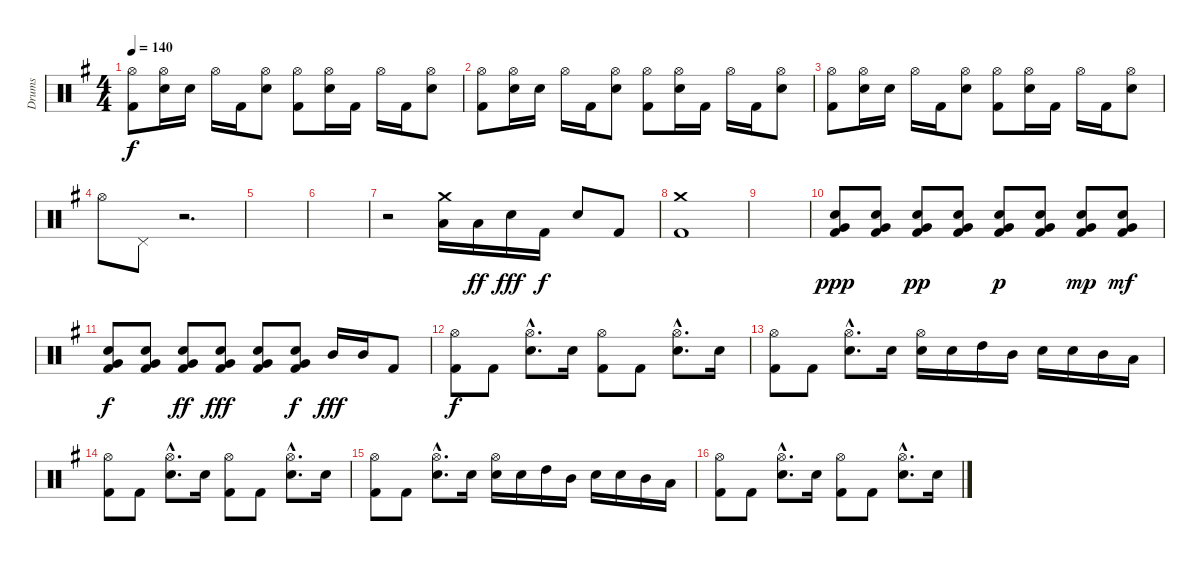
\track ("Drums" "Drums") {instrument percussion}
\staff {score}
\articulation defaults
\ts (4 4)
\tempo 140
\clef neutral
\ks g
("Hi-Hat (open)" "Kick (hit) 2").8{dy f} ("Hi-Hat (open)" "Electric Snare (hit)").16 "Electric Snare (hit)".16 "Hi-Hat (open)".16 "Kick (hit) 2".16 ("Hi-Hat (open)" "Electric Snare (hit)").8 ("Hi-Hat (open)" "Kick (hit) 2").8 ("Hi-Hat (open)" "Electric Snare (hit)").16 "Kick (hit) 2".16 "Hi-Hat (open)".16 "Kick (hit) 2".16 ("Hi-Hat (open)" "Electric Snare (hit)").8 |
("Hi-Hat (open)" "Kick (hit) 2").8 ("Hi-Hat (open)" "Electric Snare (hit)").16 "Electric Snare (hit)".16 "Hi-Hat (open)".16 "Kick (hit) 2".16 ("Hi-Hat (open)" "Electric Snare (hit)").8 ("Hi-Hat (open)" "Kick (hit) 2").8 ("Hi-Hat (open)" "Electric Snare (hit)").16 "Kick (hit) 2".16 "Hi-Hat (open)".16 "Kick (hit) 2".16 ("Hi-Hat (open)" "Electric Snare (hit)").8 |
("Hi-Hat (open)" "Kick (hit) 2").8 ("Hi-Hat (open)" "Electric Snare (hit)").16 "Electric Snare (hit)".16 "Hi-Hat (open)".16 "Kick (hit) 2".16 ("Hi-Hat (open)" "Electric Snare (hit)").8 ("Hi-Hat (open)" "Kick (hit) 2").8 ("Hi-Hat (open)" "Electric Snare (hit)").16 "Kick (hit) 2".16 "Hi-Hat (open)".16 "Kick (hit) 2".16 ("Hi-Hat (open)" "Electric Snare (hit)").8 |
"Hi-Hat (open)".8 "Pedal Hi-Hat (hit)".8 r.2{d} |
|
|
r.2 ("Crash medium (hit)" "Low Tom (hit)").16 "Low Tom (hit)".16{dy ff} "Electric Snare (hit)".16{dy fff} "Kick (hit) 2".16{dy f} "Electric Snare (hit)".8 "Kick (hit) 2".8 |
("Crash medium (hit)" "Kick (hit) 2").1 |
|
("Very Low Tom (hit)" "Electric Snare (hit)" "Kick (hit) 2").8{dy ppp} ("Very Low Tom (hit)" "Electric Snare (hit)" "Kick (hit) 2").8 ("Very Low Tom (hit)" "Electric Snare (hit)" "Kick (hit) 2").8{dy pp} ("Very Low Tom (hit)" "Electric Snare (hit)" "Kick (hit) 2").8 ("Very Low Tom (hit)" "Electric Snare (hit)" "Kick (hit) 2").8{dy p} ("Very Low Tom (hit)" "Electric Snare (hit)" "Kick (hit) 2").8 ("Very Low Tom (hit)" "Electric Snare (hit)" "Kick (hit) 2").8{dy mp} ("Very Low Tom (hit)" "Electric Snare (hit)" "Kick (hit) 2").8{dy mf} |
("Very Low Tom (hit)" "Electric Snare (hit)" "Kick (hit) 2").8{dy f} ("Very Low Tom (hit)" "Electric Snare (hit)" "Kick (hit) 2").8 ("Very Low Tom (hit)" "Electric Snare (hit)" "Kick (hit) 2").8{dy ff} ("Very Low Tom (hit)" "Electric Snare (hit)" "Kick (hit) 2").8{dy fff} ("Very Low Tom (hit)" "Electric Snare (hit)" "Kick (hit) 2").8 ("Very Low Tom (hit)" "Electric Snare (hit)" "Kick (hit) 2").8{dy f} "Mid Tom (hit)".16{dy fff} "Mid Tom (hit)".16 "Kick (hit) 2".8 |
("Hi-Hat (open)" "Kick (hit) 2").8{dy f} "Kick (hit) 2".8 ("Hi-Hat (open)"{hac} "Electric Snare (hit)"{hac}).8{d} "Electric Snare (hit)".16 ("Hi-Hat (open)" "Kick (hit) 2").8 "Kick (hit) 2".8 ("Hi-Hat (open)"{hac} "Electric Snare (hit)"{hac}).8{d} "Electric Snare (hit)".16 |
("Hi-Hat (open)" "Kick (hit) 2").8 "Kick (hit) 2".8 ("Hi-Hat (open)"{hac} "Electric Snare (hit)"{hac}).8{d} "Electric Snare (hit)".16 ("Hi-Hat (open)" "Electric Snare (hit)").16 "Electric Snare (hit)".16 "High Tom (hit)".16 "Mid Tom (hit)".16 "Electric Snare (hit)".16 "Electric Snare (hit)".16 "Mid Tom (hit)".16 "Low Tom (hit)".16 |
("Hi-Hat (open)" "Kick (hit) 2").8 "Kick (hit) 2".8 ("Hi-Hat (open)"{hac} "Electric Snare (hit)"{hac}).8{d} "Electric Snare (hit)".16 ("Hi-Hat (open)" "Kick (hit) 2").8 "Kick (hit) 2".8 ("Hi-Hat (open)"{hac} "Electric Snare (hit)"{hac}).8{d} "Electric Snare (hit)".16 |
("Hi-Hat (open)" "Kick (hit) 2").8 "Kick (hit) 2".8 ("Hi-Hat (open)"{hac} "Electric Snare (hit)"{hac}).8{d} "Electric Snare (hit)".16 ("Hi-Hat (open)" "Electric Snare (hit)").16 "Electric Snare (hit)".16 "High Tom (hit)".16 "Mid Tom (hit)".16 "Electric Snare (hit)".16 "Electric Snare (hit)".16 "Mid Tom (hit)".16 "Low Tom (hit)".16 |
("Hi-Hat (open)" "Kick (hit) 2").8 "Kick (hit) 2".8 ("Hi-Hat (open)"{hac} "Electric Snare (hit)"{hac}).8{d} "Electric Snare (hit)".16 ("Hi-Hat (open)" "Kick (hit) 2").8 "Kick (hit) 2".8 ("Hi-Hat (open)"{hac} "Electric Snare (hit)"{hac}).8{d} "Electric Snare (hit)".16
